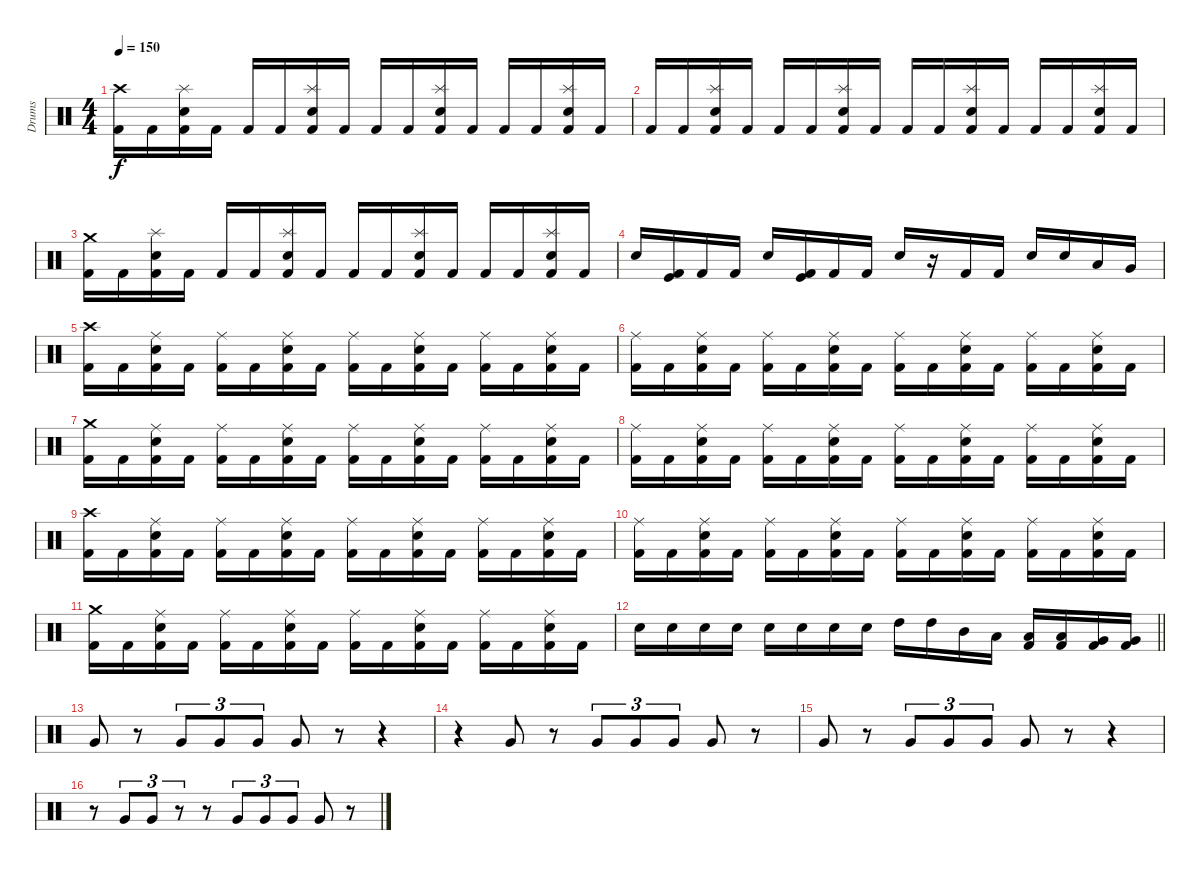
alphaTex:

\track ("Drums" "Drums") {instrument percussion}
\staff {score}
\articulation defaults
\ts (4 4)
\tempo 150
\clef neutral
\ks c
("Crash high (hit)" "Kick (hit) 2").16{dy f} "Kick (hit) 2".16 ("Splash (hit)" "Snare (hit) 2" "Kick (hit) 2").16 "Kick (hit) 2".16 "Kick (hit) 2".16 "Kick (hit) 2".16 ("Splash (hit)" "Snare (hit) 2" "Kick (hit) 2").16 "Kick (hit) 2".16 "Kick (hit) 2".16 "Kick (hit) 2".16 ("Splash (hit)" "Snare (hit) 2" "Kick (hit) 2").16 "Kick (hit) 2".16 "Kick (hit) 2".16 "Kick (hit) 2".16 ("Splash (hit)" "Snare (hit) 2" "Kick (hit) 2").16 "Kick (hit) 2".16 |
"Kick (hit) 2".16 "Kick (hit) 2".16 ("Splash (hit)" "Snare (hit) 2" "Kick (hit) 2").16 "Kick (hit) 2".16 "Kick (hit) 2".16 "Kick (hit) 2".16 ("Splash (hit)" "Snare (hit) 2" "Kick (hit) 2").16 "Kick (hit) 2".16 "Kick (hit) 2".16 "Kick (hit) 2".16 ("Splash (hit)" "Snare (hit) 2" "Kick (hit) 2").16 "Kick (hit) 2".16 "Kick (hit) 2".16 "Kick (hit) 2".16 ("Splash (hit)" "Snare (hit) 2" "Kick (hit) 2").16 "Kick (hit) 2".16 |
("Crash medium (hit)" "Kick (hit) 2").16 "Kick (hit) 2".16 ("Splash (hit)" "Snare (hit) 2" "Kick (hit) 2").16 "Kick (hit) 2".16 "Kick (hit) 2".16 "Kick (hit) 2".16 ("Splash (hit)" "Snare (hit) 2" "Kick (hit) 2").16 "Kick (hit) 2".16 "Kick (hit) 2".16 "Kick (hit) 2".16 ("Splash (hit)" "Snare (hit) 2" "Kick (hit) 2").16 "Kick (hit) 2".16 "Kick (hit) 2".16 "Kick (hit) 2".16 ("Splash (hit)" "Snare (hit) 2" "Kick (hit) 2").16 "Kick (hit) 2".16 |
"Snare (hit) 2".16 ("Kick (hit)" "Kick (hit) 2").16 "Kick (hit) 2".16 "Kick (hit) 2".16 "Snare (hit) 2".16 ("Kick (hit)" "Kick (hit) 2").16 "Kick (hit) 2".16 "Kick (hit) 2".16 "Snare (hit) 2".16 r.16 "Kick (hit) 2".16 "Kick (hit) 2".16 "Snare (hit) 2".16 "Snare (hit) 2".16 "Low Tom (hit)".16 "Very Low Tom (hit)".16 |
("Crash high (hit)" "Kick (hit) 2").16 "Kick (hit) 2".16 ("Ride (middle)" "Snare (hit) 2" "Kick (hit) 2").16 "Kick (hit) 2".16 ("Ride (middle)" "Kick (hit) 2").16 "Kick (hit) 2".16 ("Ride (middle)" "Snare (hit) 2" "Kick (hit) 2").16 "Kick (hit) 2".16 ("Ride (middle)" "Kick (hit) 2").16 "Kick (hit) 2".16 ("Ride (middle)" "Snare (hit) 2" "Kick (hit) 2").16 "Kick (hit) 2".16 ("Ride (middle)" "Kick (hit) 2").16 "Kick (hit) 2".16 ("Ride (middle)" "Snare (hit) 2" "Kick (hit) 2").16 "Kick (hit) 2".16 |
("Ride (middle)" "Kick (hit) 2").16 "Kick (hit) 2".16 ("Ride (middle)" "Snare (hit) 2" "Kick (hit) 2").16 "Kick (hit) 2".16 ("Ride (middle)" "Kick (hit) 2").16 "Kick (hit) 2".16 ("Ride (middle)" "Snare (hit) 2" "Kick (hit) 2").16 "Kick (hit) 2".16 ("Ride (middle)" "Kick (hit) 2").16 "Kick (hit) 2".16 ("Ride (middle)" "Snare (hit) 2" "Kick (hit) 2").16 "Kick (hit) 2".16 ("Ride (middle)" "Kick (hit) 2").16 "Kick (hit) 2".16 ("Ride (middle)" "Snare (hit) 2" "Kick (hit) 2").16 "Kick (hit) 2".16 |
("Crash medium (hit)" "Kick (hit) 2").16 "Kick (hit) 2".16 ("Ride (middle)" "Snare (hit) 2" "Kick (hit) 2").16 "Kick (hit) 2".16 ("Ride (middle)" "Kick (hit) 2").16 "Kick (hit) 2".16 ("Ride (middle)" "Snare (hit) 2" "Kick (hit) 2").16 "Kick (hit) 2".16 ("Ride (middle)" "Kick (hit) 2").16 "Kick (hit) 2".16 ("Ride (middle)" "Snare (hit) 2" "Kick (hit) 2").16 "Kick (hit) 2".16 ("Ride (middle)" "Kick (hit) 2").16 "Kick (hit) 2".16 ("Ride (middle)" "Snare (hit) 2" "Kick (hit) 2").16 "Kick (hit) 2".16 |
("Ride (middle)" "Kick (hit) 2").16 "Kick (hit) 2".16 ("Ride (middle)" "Snare (hit) 2" "Kick (hit) 2").16 "Kick (hit) 2".16 ("Ride (middle)" "Kick (hit) 2").16 "Kick (hit) 2".16 ("Ride (middle)" "Snare (hit) 2" "Kick (hit) 2").16 "Kick (hit) 2".16 ("Ride (middle)" "Kick (hit) 2").16 "Kick (hit) 2".16 ("Ride (middle)" "Snare (hit) 2" "Kick (hit) 2").16 "Kick (hit) 2".16 ("Ride (middle)" "Kick (hit) 2").16 "Kick (hit) 2".16 ("Ride (middle)" "Snare (hit) 2" "Kick (hit) 2").16 "Kick (hit) 2".16 |
("Crash high (hit)" "Kick (hit) 2").16 "Kick (hit) 2".16 ("Ride (middle)" "Snare (hit) 2" "Kick (hit) 2").16 "Kick (hit) 2".16 ("Ride (middle)" "Kick (hit) 2").16 "Kick (hit) 2".16 ("Ride (middle)" "Snare (hit) 2" "Kick (hit) 2").16 "Kick (hit) 2".16 ("Ride (middle)" "Kick (hit) 2").16 "Kick (hit) 2".16 ("Ride (middle)" "Snare (hit) 2" "Kick (hit) 2").16 "Kick (hit) 2".16 ("Ride (middle)" "Kick (hit) 2").16 "Kick (hit) 2".16 ("Ride (middle)" "Snare (hit) 2" "Kick (hit) 2").16 "Kick (hit) 2".16 |
("Ride (middle)" "Kick (hit) 2").16 "Kick (hit) 2".16 ("Ride (middle)" "Snare (hit) 2" "Kick (hit) 2").16 "Kick (hit) 2".16 ("Ride (middle)" "Kick (hit) 2").16 "Kick (hit) 2".16 ("Ride (middle)" "Snare (hit) 2" "Kick (hit) 2").16 "Kick (hit) 2".16 ("Ride (middle)" "Kick (hit) 2").16 "Kick (hit) 2".16 ("Ride (middle)" "Snare (hit) 2" "Kick (hit) 2").16 "Kick (hit) 2".16 ("Ride (middle)" "Kick (hit) 2").16 "Kick (hit) 2".16 ("Ride (middle)" "Snare (hit) 2" "Kick (hit) 2").16 "Kick (hit) 2".16 |
("Crash medium (hit)" "Kick (hit) 2").16 "Kick (hit) 2".16 ("Ride (middle)" "Snare (hit) 2" "Kick (hit) 2").16 "Kick (hit) 2".16 ("Ride (middle)" "Kick (hit) 2").16 "Kick (hit) 2".16 ("Ride (middle)" "Snare (hit) 2" "Kick (hit) 2").16 "Kick (hit) 2".16 ("Ride (middle)" "Kick (hit) 2").16 "Kick (hit) 2".16 ("Ride (middle)" "Snare (hit) 2" "Kick (hit) 2").16 "Kick (hit) 2".16 ("Ride (middle)" "Kick (hit) 2").16 "Kick (hit) 2".16 ("Ride (middle)" "Snare (hit) 2" "Kick (hit) 2").16 "Kick (hit) 2".16 |
\barLineRight lightlight "Snare (hit) 2".16 "Snare (hit) 2".16 "Snare (hit) 2".16 "Snare (hit) 2".16 "Snare (hit) 2".16 "Snare (hit) 2".16 "Snare (hit) 2".16 "Snare (hit) 2".16 "High Tom (hit)".16 "High Tom (hit)".16 "Mid Tom (hit)".16 "Low Tom (hit)".16
("Low Tom (hit)" "Kick (hit) 2").16 ("Low Tom (hit)" "Kick (hit) 2").16 ("Very Low Tom (hit)" "Kick (hit) 2").16 ("Very Low Tom (hit)" "Kick (hit) 2").16 |
\section ("" "")
"Very Low Tom (hit)".8 r.8 "Very Low Tom (hit)".8{tu (3 2)} "Very Low Tom (hit)".8{tu (3 2)} "Very Low Tom (hit)".8{tu (3 2)} "Very Low Tom (hit)".8 r.8 r.4 |
r.4 "Very Low Tom (hit)".8 r.8 "Very Low Tom (hit)".8{tu (3 2)} "Very Low Tom (hit)".8{tu (3 2)} "Very Low Tom (hit)".8{tu (3 2)} "Very Low Tom (hit)".8 r.8 |
"Very Low Tom (hit)".8 r.8 "Very Low Tom (hit)".8{tu (3 2)} "Very Low Tom (hit)".8{tu (3 2)} "Very Low Tom (hit)".8{tu (3 2)} "Very Low Tom (hit)".8 r.8 r.4 |
r.8 "Very Low Tom (hit)".8{tu (3 2)} "Very Low Tom (hit)".8{tu (3 2)} r.8{tu (3 2)} r.8 "Very Low Tom (hit)".8{tu (3 2)} "Very Low Tom (hit)".8{tu (3 2)} "Very Low Tom (hit)".8{tu (3 2)} "Very Low Tom (hit)".8 r.8
